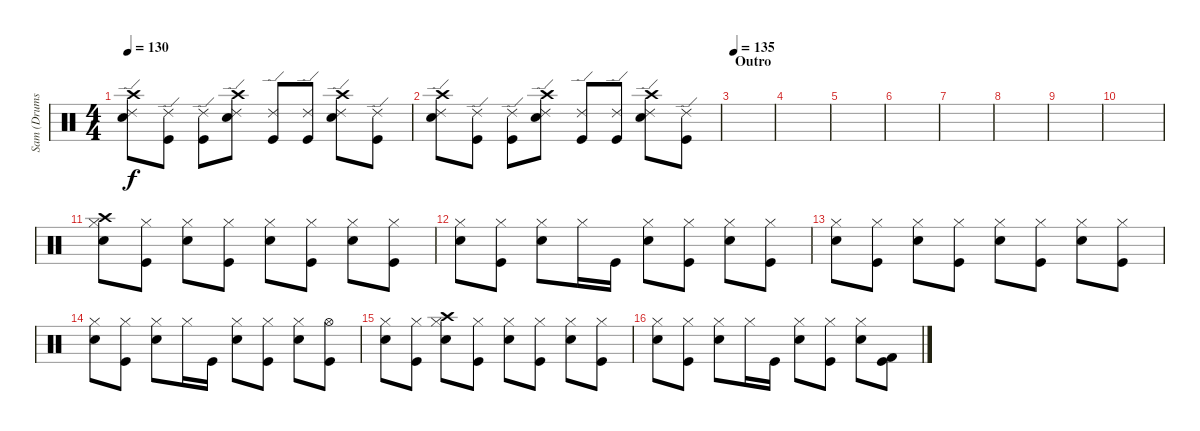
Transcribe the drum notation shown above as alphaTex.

\track ("Sam (Drums)" "Sam (Drums") {instrument percussion}
\staff {score}
\articulation defaults
\ts (4 4)
\tempo 130
\clef neutral
\ks c
("Crash high (hit)" "Ride (edge) 2" "Snare (hit) 2").8{dy f} ("Ride (edge) 2" "Kick (hit)").8 ("Ride (edge) 2" "Kick (hit)").8 ("Crash high (hit)" "Ride (edge) 2" "Snare (hit) 2").8 ("Ride (edge) 2" "Kick (hit)").8 ("Ride (edge) 2" "Kick (hit)").8 ("Crash high (hit)" "Ride (edge) 2" "Snare (hit) 2").8 ("Ride (edge) 2" "Kick (hit)").8 |
("Crash high (hit)" "Ride (edge) 2" "Snare (hit) 2").8 ("Ride (edge) 2" "Kick (hit)").8 ("Ride (edge) 2" "Kick (hit)").8 ("Crash high (hit)" "Ride (edge) 2" "Snare (hit) 2").8 ("Ride (edge) 2" "Kick (hit)").8 ("Ride (edge) 2" "Kick (hit)").8 ("Crash high (hit)" "Ride (edge) 2" "Snare (hit) 2").8 ("Ride (edge) 2" "Kick (hit)").8 |
\section ("" "Outro")
\tempo 135
|
|
|
|
|
|
|
|
("Crash high (hit)" "Hi-Hat (closed)" "Snare (hit) 2").8 ("Hi-Hat (closed)" "Kick (hit)").8 ("Hi-Hat (closed)" "Snare (hit) 2").8 ("Hi-Hat (closed)" "Kick (hit)").8 ("Hi-Hat (closed)" "Snare (hit) 2").8 ("Hi-Hat (closed)" "Kick (hit)").8 ("Hi-Hat (closed)" "Snare (hit) 2").8 ("Hi-Hat (closed)" "Kick (hit)").8 |
("Hi-Hat (closed)" "Snare (hit) 2").8 ("Hi-Hat (closed)" "Kick (hit)").8 ("Hi-Hat (closed)" "Snare (hit) 2").8 "Hi-Hat (closed)".16 "Kick (hit)".16 ("Hi-Hat (closed)" "Snare (hit) 2").8 ("Hi-Hat (closed)" "Kick (hit)").8 ("Hi-Hat (closed)" "Snare (hit) 2").8 ("Hi-Hat (closed)" "Kick (hit)").8 |
("Hi-Hat (closed)" "Snare (hit) 2").8 ("Hi-Hat (closed)" "Kick (hit)").8 ("Hi-Hat (closed)" "Snare (hit) 2").8 ("Hi-Hat (closed)" "Kick (hit)").8 ("Hi-Hat (closed)" "Snare (hit) 2").8 ("Hi-Hat (closed)" "Kick (hit)").8 ("Hi-Hat (closed)" "Snare (hit) 2").8 ("Hi-Hat (closed)" "Kick (hit)").8 |
("Hi-Hat (closed)" "Snare (hit) 2").8 ("Hi-Hat (closed)" "Kick (hit)").8 ("Hi-Hat (closed)" "Snare (hit) 2").8 "Hi-Hat (closed)".16 "Kick (hit)".16 ("Hi-Hat (closed)" "Snare (hit) 2").8 ("Hi-Hat (closed)" "Kick (hit)").8 ("Hi-Hat (closed)" "Snare (hit) 2").8 ("Hi-Hat (open)" "Kick (hit)").8 |
("Hi-Hat (closed)" "Snare (hit) 2").8 ("Hi-Hat (closed)" "Kick (hit)").8 ("Crash high (hit)" "Hi-Hat (closed)" "Snare (hit) 2").8 ("Hi-Hat (closed)" "Kick (hit)").8 ("Hi-Hat (closed)" "Snare (hit) 2").8 ("Hi-Hat (closed)" "Kick (hit)").8 ("Hi-Hat (closed)" "Snare (hit) 2").8 ("Hi-Hat (closed)" "Kick (hit)").8 |
("Hi-Hat (closed)" "Snare (hit) 2").8 ("Hi-Hat (closed)" "Kick (hit)").8 ("Hi-Hat (closed)" "Snare (hit) 2").8 "Hi-Hat (closed)".16 "Kick (hit)".16 ("Hi-Hat (closed)" "Snare (hit) 2").8 ("Hi-Hat (closed)" "Kick (hit)").8 ("Hi-Hat (closed)" "Snare (hit) 2").8 ("Kick (hit) 2" "Kick (hit)").8
